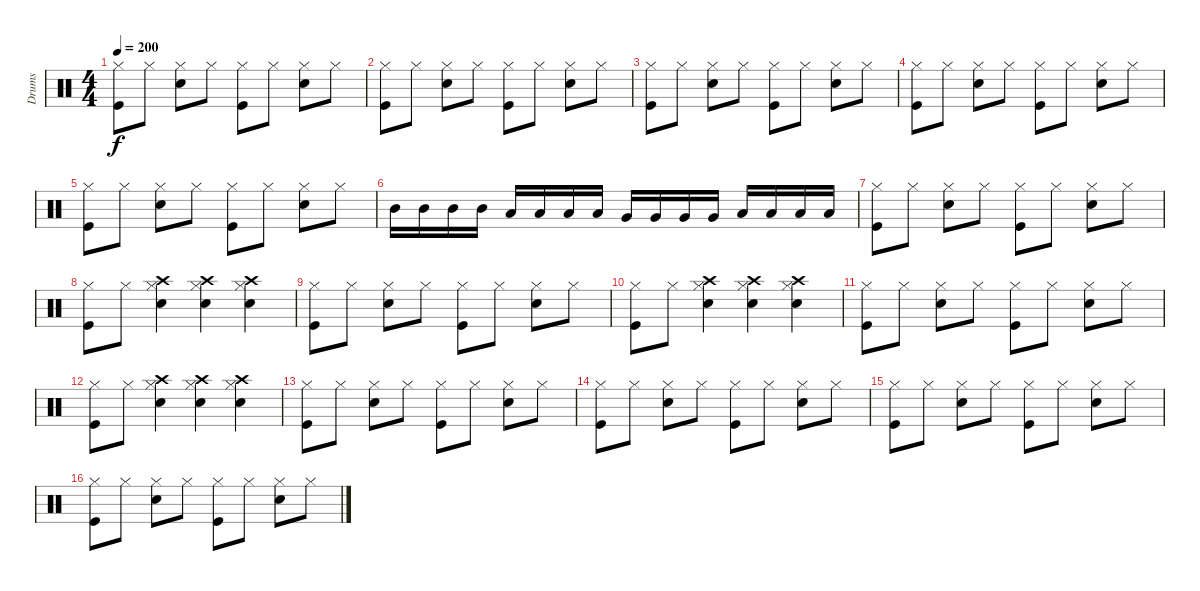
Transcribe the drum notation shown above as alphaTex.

\track ("Drums" "Drums") {instrument percussion}
\staff {score}
\articulation defaults
\ts (4 4)
\tempo 200
\clef neutral
\ks c
("Hi-Hat (closed)" "Kick (hit)").8{dy f} "Hi-Hat (closed)".8 ("Hi-Hat (closed)" "Electric Snare (hit)").8 "Hi-Hat (closed)".8 ("Hi-Hat (closed)" "Kick (hit)").8 "Hi-Hat (closed)".8 ("Hi-Hat (closed)" "Electric Snare (hit)").8 "Hi-Hat (closed)".8 |
("Hi-Hat (closed)" "Kick (hit)").8 "Hi-Hat (closed)".8 ("Hi-Hat (closed)" "Electric Snare (hit)").8 "Hi-Hat (closed)".8 ("Hi-Hat (closed)" "Kick (hit)").8 "Hi-Hat (closed)".8 ("Hi-Hat (closed)" "Electric Snare (hit)").8 "Hi-Hat (closed)".8 |
("Hi-Hat (closed)" "Kick (hit)").8 "Hi-Hat (closed)".8 ("Hi-Hat (closed)" "Electric Snare (hit)").8 "Hi-Hat (closed)".8 ("Hi-Hat (closed)" "Kick (hit)").8 "Hi-Hat (closed)".8 ("Hi-Hat (closed)" "Electric Snare (hit)").8 "Hi-Hat (closed)".8 |
("Hi-Hat (closed)" "Kick (hit)").8 "Hi-Hat (closed)".8 ("Hi-Hat (closed)" "Electric Snare (hit)").8 "Hi-Hat (closed)".8 ("Hi-Hat (closed)" "Kick (hit)").8 "Hi-Hat (closed)".8 ("Hi-Hat (closed)" "Electric Snare (hit)").8 "Hi-Hat (closed)".8 |
("Hi-Hat (closed)" "Kick (hit)").8 "Hi-Hat (closed)".8 ("Hi-Hat (closed)" "Electric Snare (hit)").8 "Hi-Hat (closed)".8 ("Hi-Hat (closed)" "Kick (hit)").8 "Hi-Hat (closed)".8 ("Hi-Hat (closed)" "Electric Snare (hit)").8 "Hi-Hat (closed)".8 |
"Mid Tom (hit)".16 "Mid Tom (hit)".16 "Mid Tom (hit)".16 "Mid Tom (hit)".16 "Low Tom (hit)".16 "Low Tom (hit)".16 "Low Tom (hit)".16 "Low Tom (hit)".16 "Very Low Tom (hit)".16 "Very Low Tom (hit)".16 "Very Low Tom (hit)".16 "Very Low Tom (hit)".16 "Low Floor Tom (hit)".16 "Low Floor Tom (hit)".16 "Low Floor Tom (hit)".16 "Low Floor Tom (hit)".16 |
("Hi-Hat (closed)" "Kick (hit)").8 "Hi-Hat (closed)".8 ("Hi-Hat (closed)" "Electric Snare (hit)").8 "Hi-Hat (closed)".8 ("Hi-Hat (closed)" "Kick (hit)").8 "Hi-Hat (closed)".8 ("Hi-Hat (closed)" "Electric Snare (hit)").8 "Hi-Hat (closed)".8 |
("Hi-Hat (closed)" "Kick (hit)").8 "Hi-Hat (closed)".8 ("Hi-Hat (closed)" "Electric Snare (hit)" "Crash high (hit)").4 ("Hi-Hat (closed)" "Electric Snare (hit)" "Crash high (hit)").4 ("Hi-Hat (closed)" "Electric Snare (hit)" "Crash high (hit)").4 |
("Hi-Hat (closed)" "Kick (hit)").8 "Hi-Hat (closed)".8 ("Hi-Hat (closed)" "Electric Snare (hit)").8 "Hi-Hat (closed)".8 ("Hi-Hat (closed)" "Kick (hit)").8 "Hi-Hat (closed)".8 ("Hi-Hat (closed)" "Electric Snare (hit)").8 "Hi-Hat (closed)".8 |
("Hi-Hat (closed)" "Kick (hit)").8 "Hi-Hat (closed)".8 ("Hi-Hat (closed)" "Electric Snare (hit)" "Crash high (hit)").4 ("Hi-Hat (closed)" "Electric Snare (hit)" "Crash high (hit)").4 ("Hi-Hat (closed)" "Electric Snare (hit)" "Crash high (hit)").4 |
("Hi-Hat (closed)" "Kick (hit)").8 "Hi-Hat (closed)".8 ("Hi-Hat (closed)" "Electric Snare (hit)").8 "Hi-Hat (closed)".8 ("Hi-Hat (closed)" "Kick (hit)").8 "Hi-Hat (closed)".8 ("Hi-Hat (closed)" "Electric Snare (hit)").8 "Hi-Hat (closed)".8 |
("Hi-Hat (closed)" "Kick (hit)").8 "Hi-Hat (closed)".8 ("Hi-Hat (closed)" "Electric Snare (hit)" "Crash high (hit)").4 ("Hi-Hat (closed)" "Electric Snare (hit)" "Crash high (hit)").4 ("Hi-Hat (closed)" "Electric Snare (hit)" "Crash high (hit)").4 |
("Hi-Hat (closed)" "Kick (hit)").8 "Hi-Hat (closed)".8 ("Hi-Hat (closed)" "Electric Snare (hit)").8 "Hi-Hat (closed)".8 ("Hi-Hat (closed)" "Kick (hit)").8 "Hi-Hat (closed)".8 ("Hi-Hat (closed)" "Electric Snare (hit)").8 "Hi-Hat (closed)".8 |
("Hi-Hat (closed)" "Kick (hit)").8 "Hi-Hat (closed)".8 ("Hi-Hat (closed)" "Electric Snare (hit)").8 "Hi-Hat (closed)".8 ("Hi-Hat (closed)" "Kick (hit)").8 "Hi-Hat (closed)".8 ("Hi-Hat (closed)" "Electric Snare (hit)").8 "Hi-Hat (closed)".8 |
("Hi-Hat (closed)" "Kick (hit)").8 "Hi-Hat (closed)".8 ("Hi-Hat (closed)" "Electric Snare (hit)").8 "Hi-Hat (closed)".8 ("Hi-Hat (closed)" "Kick (hit)").8 "Hi-Hat (closed)".8 ("Hi-Hat (closed)" "Electric Snare (hit)").8 "Hi-Hat (closed)".8 |
("Hi-Hat (closed)" "Kick (hit)").8 "Hi-Hat (closed)".8 ("Hi-Hat (closed)" "Electric Snare (hit)").8 "Hi-Hat (closed)".8 ("Hi-Hat (closed)" "Kick (hit)").8 "Hi-Hat (closed)".8 ("Hi-Hat (closed)" "Electric Snare (hit)").8 "Hi-Hat (closed)".8
